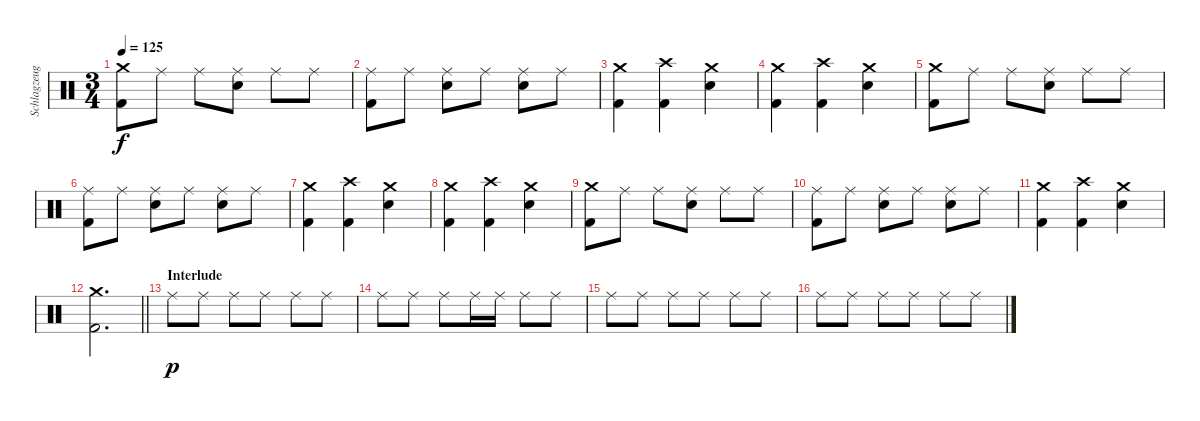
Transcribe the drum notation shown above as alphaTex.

\track ("Schlagzeug" "Schlagzeug") {instrument percussion}
\staff {score}
\articulation defaults
\ts (3 4)
\tempo 125
\clef neutral
\ks c
("Crash medium (hit)" "Kick (hit) 2").8{dy f} "Ride (middle)".8 "Ride (middle)".8 ("Ride (middle)" "Snare (hit) 2").8 "Ride (middle)".8 "Ride (middle)".8 |
("Ride (middle)" "Kick (hit) 2").8 "Ride (middle)".8 ("Ride (middle)" "Snare (hit) 2").8 "Ride (middle)".8 ("Ride (middle)" "Snare (hit) 2").8 "Ride (middle)".8 |
("Crash medium (hit)" "Kick (hit) 2").4 ("Crash high (hit)" "Kick (hit) 2").4 ("Crash medium (hit)" "Snare (hit) 2").4 |
("Crash medium (hit)" "Kick (hit) 2").4 ("Crash high (hit)" "Kick (hit) 2").4 ("Crash medium (hit)" "Snare (hit) 2").4 |
("Crash medium (hit)" "Kick (hit) 2").8 "Ride (middle)".8 "Ride (middle)".8 ("Ride (middle)" "Snare (hit) 2").8 "Ride (middle)".8 "Ride (middle)".8 |
("Ride (middle)" "Kick (hit) 2").8 "Ride (middle)".8 ("Ride (middle)" "Snare (hit) 2").8 "Ride (middle)".8 ("Ride (middle)" "Snare (hit) 2").8 "Ride (middle)".8 |
("Crash medium (hit)" "Kick (hit) 2").4 ("Crash high (hit)" "Kick (hit) 2").4 ("Crash medium (hit)" "Snare (hit) 2").4 |
("Crash medium (hit)" "Kick (hit) 2").4 ("Crash high (hit)" "Kick (hit) 2").4 ("Crash medium (hit)" "Snare (hit) 2").4 |
("Crash medium (hit)" "Kick (hit) 2").8 "Ride (middle)".8 "Ride (middle)".8 ("Ride (middle)" "Snare (hit) 2").8 "Ride (middle)".8 "Ride (middle)".8 |
("Ride (middle)" "Kick (hit) 2").8 "Ride (middle)".8 ("Ride (middle)" "Snare (hit) 2").8 "Ride (middle)".8 ("Ride (middle)" "Snare (hit) 2").8 "Ride (middle)".8 |
("Crash medium (hit)" "Kick (hit) 2").4 ("Crash high (hit)" "Kick (hit) 2").4 ("Crash medium (hit)" "Snare (hit) 2").4 |
\barLineRight lightlight
("Crash medium (hit)" "Kick (hit) 2").2{d} |
\section ("" "Interlude")
"Ride (middle)".8{dy p} "Ride (middle)".8 "Ride (middle)".8 "Ride (middle)".8 "Ride (middle)".8 "Ride (middle)".8 |
"Ride (middle)".8 "Ride (middle)".8 "Ride (middle)".8 "Ride (middle)".16 "Ride (middle)".16 "Ride (middle)".8 "Ride (middle)".8 |
"Ride (middle)".8 "Ride (middle)".8 "Ride (middle)".8 "Ride (middle)".8 "Ride (middle)".8 "Ride (middle)".8 |
"Ride (middle)".8 "Ride (middle)".8 "Ride (middle)".8 "Ride (middle)".8 "Ride (middle)".8 "Ride (middle)".8
